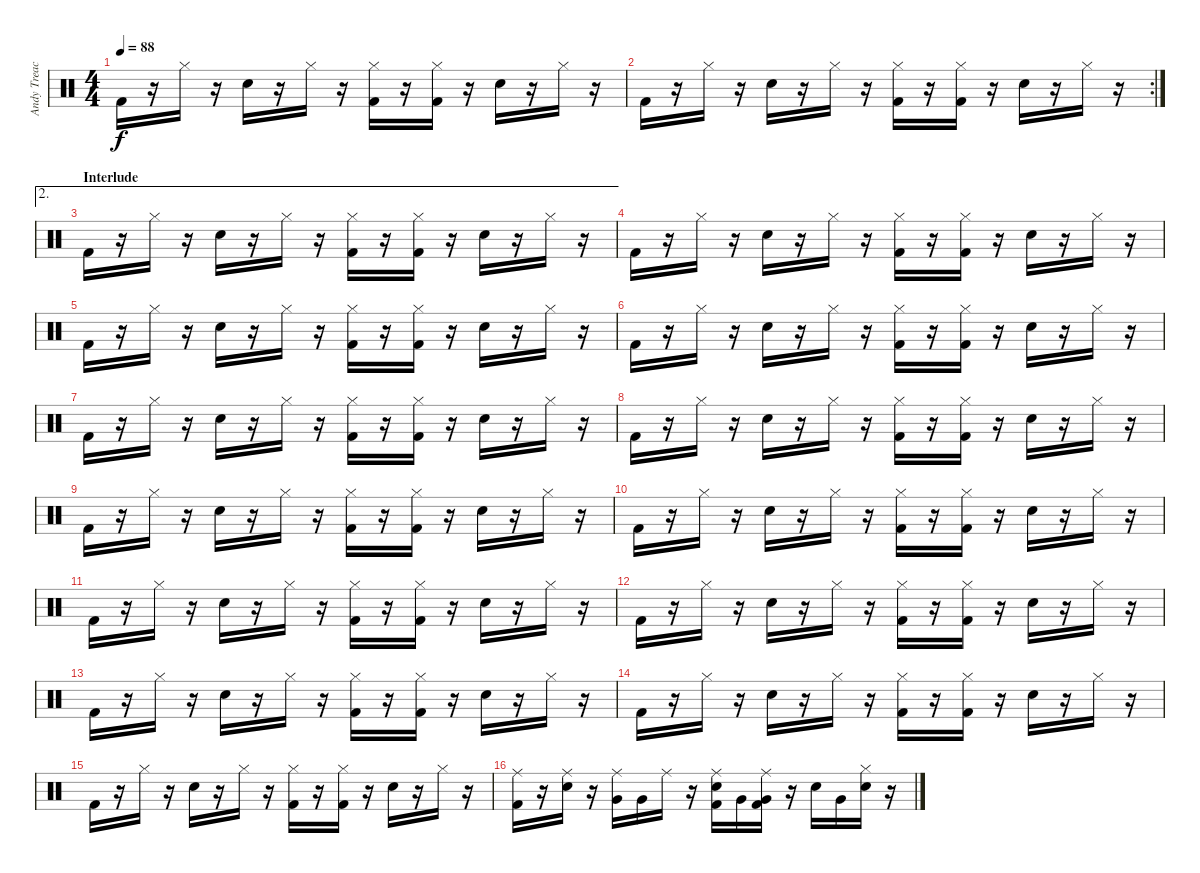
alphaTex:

\track ("Andy Treacey" "Andy Treac") {instrument percussion}
\staff {score}
\articulation defaults
\ts (4 4)
\tempo 88
\clef neutral
\ks c "Kick (hit) 2".16{dy f}
r.16 "Hi-Hat (closed)".16 r.16 "Electric Snare (hit)".16 r.16 "Hi-Hat (closed)".16 r.16 ("Hi-Hat (closed)" "Kick (hit) 2").16 r.16 ("Hi-Hat (closed)" "Kick (hit) 2").16 r.16 "Electric Snare (hit)".16 r.16 "Hi-Hat (closed)".16 r.16 |
\rc 2 "Kick (hit) 2".16
r.16 "Hi-Hat (closed)".16 r.16 "Electric Snare (hit)".16 r.16 "Hi-Hat (closed)".16 r.16 ("Hi-Hat (closed)" "Kick (hit) 2").16 r.16 ("Hi-Hat (closed)" "Kick (hit) 2").16 r.16 "Electric Snare (hit)".16 r.16 "Hi-Hat (closed)".16 r.16 |
\ae 2
\section ("" "Interlude")
"Kick (hit) 2".16 r.16 "Hi-Hat (closed)".16 r.16 "Electric Snare (hit)".16 r.16 "Hi-Hat (closed)".16 r.16 ("Hi-Hat (closed)" "Kick (hit) 2").16 r.16 ("Hi-Hat (closed)" "Kick (hit) 2").16 r.16 "Electric Snare (hit)".16 r.16 "Hi-Hat (closed)".16 r.16 |
"Kick (hit) 2".16 r.16 "Hi-Hat (closed)".16 r.16 "Electric Snare (hit)".16 r.16 "Hi-Hat (closed)".16 r.16 ("Hi-Hat (closed)" "Kick (hit) 2").16 r.16 ("Hi-Hat (closed)" "Kick (hit) 2").16 r.16 "Electric Snare (hit)".16 r.16 "Hi-Hat (closed)".16 r.16 |
"Kick (hit) 2".16 r.16 "Hi-Hat (closed)".16 r.16 "Electric Snare (hit)".16 r.16 "Hi-Hat (closed)".16 r.16 ("Hi-Hat (closed)" "Kick (hit) 2").16 r.16 ("Hi-Hat (closed)" "Kick (hit) 2").16 r.16 "Electric Snare (hit)".16 r.16 "Hi-Hat (closed)".16 r.16 |
"Kick (hit) 2".16 r.16 "Hi-Hat (closed)".16 r.16 "Electric Snare (hit)".16 r.16 "Hi-Hat (closed)".16 r.16 ("Hi-Hat (closed)" "Kick (hit) 2").16 r.16 ("Hi-Hat (closed)" "Kick (hit) 2").16 r.16 "Electric Snare (hit)".16 r.16 "Hi-Hat (closed)".16 r.16 |
"Kick (hit) 2".16 r.16 "Hi-Hat (closed)".16 r.16 "Electric Snare (hit)".16 r.16 "Hi-Hat (closed)".16 r.16 ("Hi-Hat (closed)" "Kick (hit) 2").16 r.16 ("Hi-Hat (closed)" "Kick (hit) 2").16 r.16 "Electric Snare (hit)".16 r.16 "Hi-Hat (closed)".16 r.16 |
"Kick (hit) 2".16 r.16 "Hi-Hat (closed)".16 r.16 "Electric Snare (hit)".16 r.16 "Hi-Hat (closed)".16 r.16 ("Hi-Hat (closed)" "Kick (hit) 2").16 r.16 ("Hi-Hat (closed)" "Kick (hit) 2").16 r.16 "Electric Snare (hit)".16 r.16 "Hi-Hat (closed)".16 r.16 |
"Kick (hit) 2".16 r.16 "Hi-Hat (closed)".16 r.16 "Electric Snare (hit)".16 r.16 "Hi-Hat (closed)".16 r.16 ("Hi-Hat (closed)" "Kick (hit) 2").16 r.16 ("Hi-Hat (closed)" "Kick (hit) 2").16 r.16 "Electric Snare (hit)".16 r.16 "Hi-Hat (closed)".16 r.16 |
"Kick (hit) 2".16 r.16 "Hi-Hat (closed)".16 r.16 "Electric Snare (hit)".16 r.16 "Hi-Hat (closed)".16 r.16 ("Hi-Hat (closed)" "Kick (hit) 2").16 r.16 ("Hi-Hat (closed)" "Kick (hit) 2").16 r.16 "Electric Snare (hit)".16 r.16 "Hi-Hat (closed)".16 r.16 |
"Kick (hit) 2".16 r.16 "Hi-Hat (closed)".16 r.16 "Electric Snare (hit)".16 r.16 "Hi-Hat (closed)".16 r.16 ("Hi-Hat (closed)" "Kick (hit) 2").16 r.16 ("Hi-Hat (closed)" "Kick (hit) 2").16 r.16 "Electric Snare (hit)".16 r.16 "Hi-Hat (closed)".16 r.16 |
"Kick (hit) 2".16 r.16 "Hi-Hat (closed)".16 r.16 "Electric Snare (hit)".16 r.16 "Hi-Hat (closed)".16 r.16 ("Hi-Hat (closed)" "Kick (hit) 2").16 r.16 ("Hi-Hat (closed)" "Kick (hit) 2").16 r.16 "Electric Snare (hit)".16 r.16 "Hi-Hat (closed)".16 r.16 |
"Kick (hit) 2".16 r.16 "Hi-Hat (closed)".16 r.16 "Electric Snare (hit)".16 r.16 "Hi-Hat (closed)".16 r.16 ("Hi-Hat (closed)" "Kick (hit) 2").16 r.16 ("Hi-Hat (closed)" "Kick (hit) 2").16 r.16 "Electric Snare (hit)".16 r.16 "Hi-Hat (closed)".16 r.16 |
"Kick (hit) 2".16 r.16 "Hi-Hat (closed)".16 r.16 "Electric Snare (hit)".16 r.16 "Hi-Hat (closed)".16 r.16 ("Hi-Hat (closed)" "Kick (hit) 2").16 r.16 ("Hi-Hat (closed)" "Kick (hit) 2").16 r.16 "Electric Snare (hit)".16 r.16 "Hi-Hat (closed)".16 r.16 |
"Kick (hit) 2".16 r.16 "Hi-Hat (closed)".16 r.16 "Electric Snare (hit)".16 r.16 "Hi-Hat (closed)".16 r.16 ("Hi-Hat (closed)" "Kick (hit) 2").16 r.16 ("Hi-Hat (closed)" "Kick (hit) 2").16 r.16 "Electric Snare (hit)".16 r.16 "Hi-Hat (closed)".16 r.16 |
("Ride (middle)" "Kick (hit) 2").16 r.16 ("Ride (middle)" "Electric Snare (hit)").16 r.16 ("Ride (middle)" "Very Low Tom (hit)").16 "Very Low Tom (hit)".16 "Ride (middle)".16 r.16 ("Ride (middle)" "Electric Snare (hit)" "Kick (hit) 2").16 "Very Low Tom (hit)".16 ("Ride (middle)" "Very Low Tom (hit)" "Kick (hit) 2").16 r.16 "Electric Snare (hit)".16 "Very Low Tom (hit)".16 ("Hi-Hat (closed)" "Electric Snare (hit)").16 r.16
